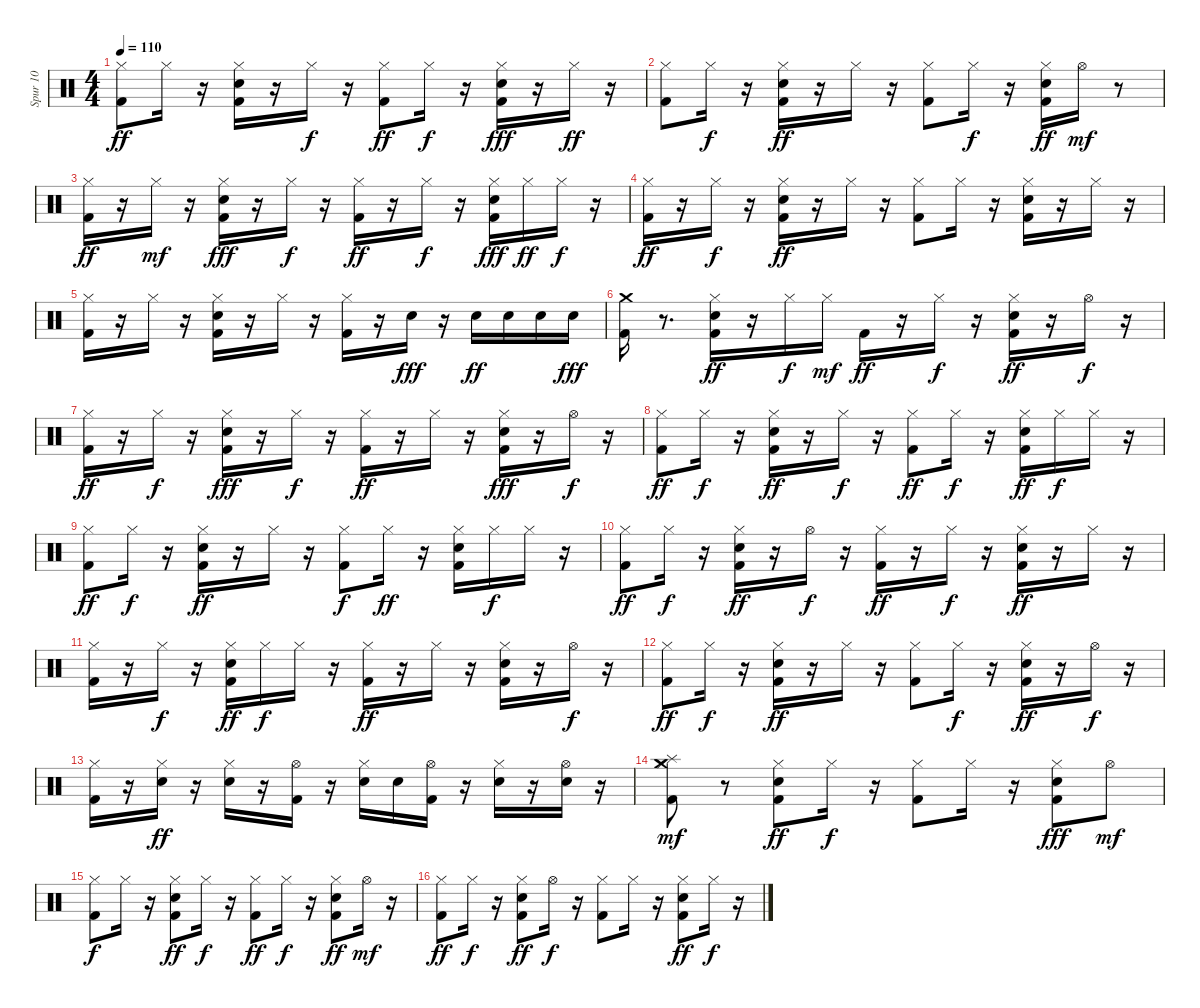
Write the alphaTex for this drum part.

\track ("Spur 10" "Spur 10") {instrument percussion}
\staff {score}
\articulation defaults
\ts (4 4)
\tempo 110
\clef neutral
\ks c
("Hi-Hat (closed)" "Kick (hit) 2").8{dy ff} "Hi-Hat (closed)".16 r.16 ("Snare (hit) 2" "Kick (hit) 2" "Hi-Hat (closed)").16 r.16 "Hi-Hat (closed)".16{dy f} r.16 ("Kick (hit) 2" "Hi-Hat (closed)").8{dy ff} "Hi-Hat (closed)".16{dy f} r.16 ("Kick (hit) 2" "Snare (hit) 2" "Hi-Hat (closed)").16{dy fff} r.16 "Hi-Hat (closed)".16{dy ff} r.16 |
("Kick (hit) 2" "Hi-Hat (closed)").8 "Hi-Hat (closed)".16{dy f} r.16 ("Kick (hit) 2" "Snare (hit) 2" "Hi-Hat (closed)").16{dy ff} r.16 "Hi-Hat (closed)".16 r.16 ("Kick (hit) 2" "Hi-Hat (closed)").8 "Hi-Hat (closed)".16{dy f} r.16 ("Snare (hit) 2" "Kick (hit) 2" "Hi-Hat (closed)").16{dy ff} "Hi-Hat (open)".16{dy mf} r.8 |
("Kick (hit) 2" "Hi-Hat (closed)").16{dy ff} r.16 "Hi-Hat (closed)".16{dy mf} r.16 ("Kick (hit) 2" "Hi-Hat (closed)" "Snare (hit) 2").16{dy fff} r.16 "Hi-Hat (closed)".16{dy f} r.16 ("Kick (hit) 2" "Hi-Hat (closed)").16{dy ff} r.16 "Hi-Hat (closed)".16{dy f} r.16 ("Hi-Hat (closed)" "Snare (hit) 2" "Kick (hit) 2").16{dy fff} "Hi-Hat (closed)".16{dy ff} "Hi-Hat (closed)".16{dy f} r.16 |
("Kick (hit) 2" "Hi-Hat (closed)").16{dy ff} r.16 "Hi-Hat (closed)".16{dy f} r.16 ("Kick (hit) 2" "Snare (hit) 2" "Hi-Hat (closed)").16{dy ff} r.16 "Hi-Hat (closed)".16 r.16 ("Kick (hit) 2" "Hi-Hat (closed)").8 "Hi-Hat (closed)".16 r.16 ("Snare (hit) 2" "Kick (hit) 2" "Hi-Hat (closed)").16 r.16 "Hi-Hat (closed)".16 r.16 |
("Kick (hit) 2" "Hi-Hat (closed)").16 r.16 "Hi-Hat (closed)".16 r.16 ("Snare (hit) 2" "Hi-Hat (closed)" "Kick (hit) 2").16 r.16 "Hi-Hat (closed)".16 r.16 ("Kick (hit) 2" "Hi-Hat (closed)").16 r.16 "Snare (hit) 2".16{dy fff} r.16 "Snare (hit) 2".16{dy ff} "Snare (hit) 2".16 "Snare (hit) 2".16 "Snare (hit) 2".16{dy fff} |
("Kick (hit) 2" "Crash medium (hit)").16 r.8{d} ("Snare (hit) 2" "Hi-Hat (closed)" "Kick (hit) 2").16{dy ff} r.16 "Hi-Hat (closed)".16{dy f} "Hi-Hat (closed)".16{dy mf} "Kick (hit) 2".16{dy ff} r.16 "Hi-Hat (closed)".16{dy f} r.16 ("Kick (hit) 2" "Snare (hit) 2" "Hi-Hat (closed)").16{dy ff} r.16 "Hi-Hat (open)".16{dy f} r.16 |
("Kick (hit) 2" "Hi-Hat (closed)").16{dy ff} r.16 "Hi-Hat (closed)".16{dy f} r.16 ("Kick (hit) 2" "Snare (hit) 2" "Hi-Hat (closed)").16{dy fff} r.16 "Hi-Hat (closed)".16{dy f} r.16 ("Hi-Hat (closed)" "Kick (hit) 2").16{dy ff} r.16 "Hi-Hat (closed)".16 r.16 ("Hi-Hat (closed)" "Snare (hit) 2" "Kick (hit) 2").16{dy fff} r.16 "Hi-Hat (open)".16{dy f} r.16 |
("Hi-Hat (closed)" "Kick (hit) 2").8{dy ff} "Hi-Hat (closed)".16{dy f} r.16 ("Kick (hit) 2" "Snare (hit) 2" "Hi-Hat (closed)").16{dy ff} r.16 "Hi-Hat (closed)".16{dy f} r.16 ("Kick (hit) 2" "Hi-Hat (closed)").8{dy ff} "Hi-Hat (closed)".16{dy f} r.16 ("Kick (hit) 2" "Snare (hit) 2" "Hi-Hat (closed)").16{dy ff} "Hi-Hat (closed)".16{dy f} "Hi-Hat (closed)".16 r.16 |
("Kick (hit) 2" "Hi-Hat (closed)").8{dy ff} "Hi-Hat (closed)".16{dy f} r.16 ("Kick (hit) 2" "Snare (hit) 2" "Hi-Hat (closed)").16{dy ff} r.16 "Hi-Hat (closed)".16 r.16 ("Hi-Hat (closed)" "Kick (hit) 2").8{dy f} "Hi-Hat (closed)".16{dy ff} r.16 ("Kick (hit) 2" "Snare (hit) 2" "Hi-Hat (closed)").16 "Hi-Hat (closed)".16{dy f} "Hi-Hat (closed)".16 r.16 |
("Kick (hit) 2" "Hi-Hat (closed)").8{dy ff} "Hi-Hat (closed)".16{dy f} r.16 ("Kick (hit) 2" "Snare (hit) 2" "Hi-Hat (closed)").16{dy ff} r.16 "Hi-Hat (open)".16{dy f} r.16 ("Kick (hit) 2" "Hi-Hat (closed)").16{dy ff} r.16 "Hi-Hat (closed)".16{dy f} r.16 ("Kick (hit) 2" "Snare (hit) 2" "Hi-Hat (closed)").16{dy ff} r.16 "Hi-Hat (closed)".16 r.16 |
("Kick (hit) 2" "Hi-Hat (closed)").16 r.16 "Hi-Hat (closed)".16{dy f} r.16 ("Kick (hit) 2" "Hi-Hat (closed)" "Snare (hit) 2").16{dy ff} "Hi-Hat (closed)".16{dy f} "Hi-Hat (closed)".16 r.16 ("Hi-Hat (closed)" "Kick (hit) 2").16{dy ff} r.16 "Hi-Hat (closed)".16 r.16 ("Kick (hit) 2" "Snare (hit) 2" "Hi-Hat (closed)").16 r.16 "Hi-Hat (open)".16{dy f} r.16 |
("Kick (hit) 2" "Hi-Hat (closed)").8{dy ff} "Hi-Hat (closed)".16{dy f} r.16 ("Kick (hit) 2" "Snare (hit) 2" "Hi-Hat (closed)").16{dy ff} r.16 "Hi-Hat (closed)".16 r.16 ("Kick (hit) 2" "Hi-Hat (closed)").8 "Hi-Hat (closed)".16{dy f} r.16 ("Snare (hit) 2" "Kick (hit) 2" "Hi-Hat (closed)").16{dy ff} r.16 "Hi-Hat (open)".16{dy f} r.16 |
("Kick (hit) 2" "Hi-Hat (closed)").16 r.16 ("Hi-Hat (closed)" "Snare (hit) 2").16{dy ff} r.16 ("Snare (hit) 2" "Hi-Hat (closed)").16 r.16 ("Kick (hit) 2" "Hi-Hat (open)").16 r.16 ("Hi-Hat (closed)" "Snare (hit) 2").16 "Snare (hit) 2".16 ("Kick (hit) 2" "Hi-Hat (open)").16 r.16 ("Snare (hit) 2" "Hi-Hat (closed)").16 r.16 ("Snare (hit) 2" "Hi-Hat (open)").16 r.16 |
("Kick (hit) 2" "Crash medium (hit)" "Hi-Hat (closed)" "Splash (hit)").8{dy mf} r.8 ("Kick (hit) 2" "Snare (hit) 2" "Hi-Hat (closed)").8{dy ff} "Hi-Hat (closed)".16{dy f} r.16 ("Hi-Hat (closed)" "Kick (hit) 2").8 "Hi-Hat (closed)".16 r.16 ("Hi-Hat (closed)" "Kick (hit) 2" "Snare (hit) 2").8{dy fff} "Hi-Hat (open)".8{dy mf} |
("Kick (hit) 2" "Hi-Hat (closed)").8{dy f} "Hi-Hat (closed)".16 r.16 ("Snare (hit) 2" "Kick (hit) 2" "Hi-Hat (closed)").8{dy ff} "Hi-Hat (closed)".16{dy f} r.16 ("Kick (hit) 2" "Hi-Hat (closed)").8{dy ff} "Hi-Hat (closed)".16{dy f} r.16 ("Snare (hit) 2" "Kick (hit) 2" "Hi-Hat (closed)").8{dy ff} "Hi-Hat (open)".16{dy mf} r.16 |
("Kick (hit) 2" "Hi-Hat (closed)").8{dy ff} "Hi-Hat (closed)".16{dy f} r.16 ("Snare (hit) 2" "Kick (hit) 2" "Hi-Hat (closed)").8{dy ff} "Hi-Hat (open)".16{dy f} r.16 ("Kick (hit) 2" "Hi-Hat (closed)").8 "Hi-Hat (closed)".16 r.16 ("Snare (hit) 2" "Kick (hit) 2" "Hi-Hat (closed)").8{dy ff} "Hi-Hat (closed)".16{dy f} r.16
